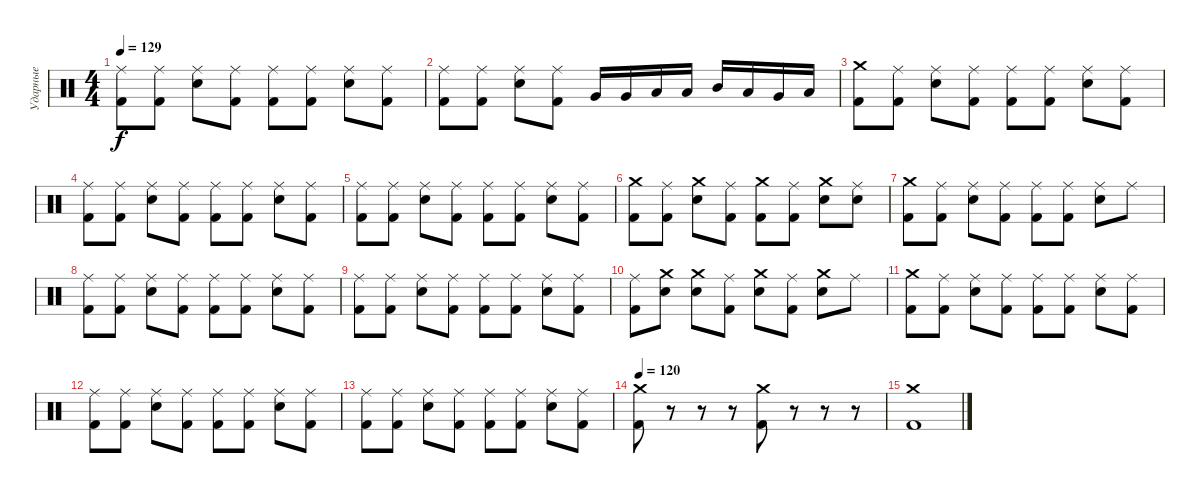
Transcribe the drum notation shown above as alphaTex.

\track ("Ударные" "Ударные") {instrument percussion}
\staff {score}
\articulation defaults
\ts (4 4)
\tempo 129
\clef neutral
\ks c
("Ride (middle)" "Kick (hit) 2").8{dy f} ("Ride (middle)" "Kick (hit) 2").8 ("Ride (middle)" "Electric Snare (hit)").8 ("Ride (middle)" "Kick (hit) 2").8 ("Ride (middle)" "Kick (hit) 2").8 ("Ride (middle)" "Kick (hit) 2").8 ("Ride (middle)" "Electric Snare (hit)").8 ("Ride (middle)" "Kick (hit) 2").8 |
("Ride (middle)" "Kick (hit) 2").8 ("Ride (middle)" "Kick (hit) 2").8 ("Ride (middle)" "Electric Snare (hit)").8 ("Ride (middle)" "Kick (hit) 2").8 "Very Low Tom (hit)".16 "Very Low Tom (hit)".16 "Low Tom (hit)".16 "Low Tom (hit)".16 "Mid Tom (hit)".16 "Low Tom (hit)".16 "Very Low Tom (hit)".16 "Low Floor Tom (hit)".16 |
("Crash medium (hit)" "Kick (hit) 2").8 ("Ride (middle)" "Kick (hit) 2").8 ("Ride (middle)" "Electric Snare (hit)").8 ("Ride (middle)" "Kick (hit) 2").8 ("Ride (middle)" "Kick (hit) 2").8 ("Ride (middle)" "Kick (hit) 2").8 ("Ride (middle)" "Electric Snare (hit)").8 ("Ride (middle)" "Kick (hit) 2").8 |
("Ride (middle)" "Kick (hit) 2").8 ("Ride (middle)" "Kick (hit) 2").8 ("Ride (middle)" "Electric Snare (hit)").8 ("Ride (middle)" "Kick (hit) 2").8 ("Ride (middle)" "Kick (hit) 2").8 ("Ride (middle)" "Kick (hit) 2").8 ("Ride (middle)" "Electric Snare (hit)").8 ("Ride (middle)" "Kick (hit) 2").8 |
("Ride (middle)" "Kick (hit) 2").8 ("Ride (middle)" "Kick (hit) 2").8 ("Ride (middle)" "Electric Snare (hit)").8 ("Ride (middle)" "Kick (hit) 2").8 ("Ride (middle)" "Kick (hit) 2").8 ("Ride (middle)" "Kick (hit) 2").8 ("Ride (middle)" "Electric Snare (hit)").8 ("Ride (middle)" "Kick (hit) 2").8 |
("Crash medium (hit)" "Kick (hit) 2").8 ("Ride (middle)" "Kick (hit) 2").8 ("Crash medium (hit)" "Electric Snare (hit)").8 ("Ride (middle)" "Kick (hit) 2").8 ("Crash medium (hit)" "Kick (hit) 2").8 ("Ride (middle)" "Kick (hit) 2").8 ("Crash medium (hit)" "Electric Snare (hit)").8 ("Ride (middle)" "Electric Snare (hit)").8 |
("Crash medium (hit)" "Kick (hit) 2").8 ("Ride (middle)" "Kick (hit) 2").8 ("Ride (middle)" "Electric Snare (hit)").8 ("Ride (middle)" "Kick (hit) 2").8 ("Ride (middle)" "Kick (hit) 2").8 ("Ride (middle)" "Kick (hit) 2").8 ("Ride (middle)" "Electric Snare (hit)").8 "Ride (middle)".8 |
("Ride (middle)" "Kick (hit) 2").8 ("Ride (middle)" "Kick (hit) 2").8 ("Ride (middle)" "Electric Snare (hit)").8 ("Ride (middle)" "Kick (hit) 2").8 ("Ride (middle)" "Kick (hit) 2").8 ("Ride (middle)" "Kick (hit) 2").8 ("Ride (middle)" "Electric Snare (hit)").8 ("Ride (middle)" "Kick (hit) 2").8 |
("Ride (middle)" "Kick (hit) 2").8 ("Ride (middle)" "Kick (hit) 2").8 ("Ride (middle)" "Electric Snare (hit)").8 ("Ride (middle)" "Kick (hit) 2").8 ("Ride (middle)" "Kick (hit) 2").8 ("Ride (middle)" "Kick (hit) 2").8 ("Ride (middle)" "Electric Snare (hit)").8 ("Ride (middle)" "Kick (hit) 2").8 |
("Ride (middle)" "Kick (hit) 2").8 ("Crash medium (hit)" "Electric Snare (hit)").8 ("Crash medium (hit)" "Electric Snare (hit)").8 ("Ride (middle)" "Kick (hit) 2").8 ("Crash medium (hit)" "Electric Snare (hit)").8 ("Ride (middle)" "Kick (hit) 2").8 ("Crash medium (hit)" "Electric Snare (hit)").8 "Ride (middle)".8 |
("Crash medium (hit)" "Kick (hit) 2").8 ("Ride (middle)" "Kick (hit) 2").8 ("Ride (middle)" "Electric Snare (hit)").8 ("Ride (middle)" "Kick (hit) 2").8 ("Ride (middle)" "Kick (hit) 2").8 ("Ride (middle)" "Kick (hit) 2").8 ("Ride (middle)" "Electric Snare (hit)").8 ("Ride (middle)" "Kick (hit) 2").8 |
("Ride (middle)" "Kick (hit) 2").8 ("Ride (middle)" "Kick (hit) 2").8 ("Ride (middle)" "Electric Snare (hit)").8 ("Ride (middle)" "Kick (hit) 2").8 ("Ride (middle)" "Kick (hit) 2").8 ("Ride (middle)" "Kick (hit) 2").8 ("Ride (middle)" "Electric Snare (hit)").8 ("Ride (middle)" "Kick (hit) 2").8 |
("Ride (middle)" "Kick (hit) 2").8 ("Ride (middle)" "Kick (hit) 2").8 ("Ride (middle)" "Electric Snare (hit)").8 ("Ride (middle)" "Kick (hit) 2").8 ("Ride (middle)" "Kick (hit) 2").8 ("Ride (middle)" "Kick (hit) 2").8 ("Ride (middle)" "Electric Snare (hit)").8 ("Ride (middle)" "Kick (hit) 2").8 |
\tempo 120
("Crash medium (hit)" "Kick (hit) 2").8 r.8 r.8 r.8 ("Crash medium (hit)" "Kick (hit) 2").8 r.8 r.8 r.8 |
("Crash medium (hit)" "Kick (hit) 2").1
